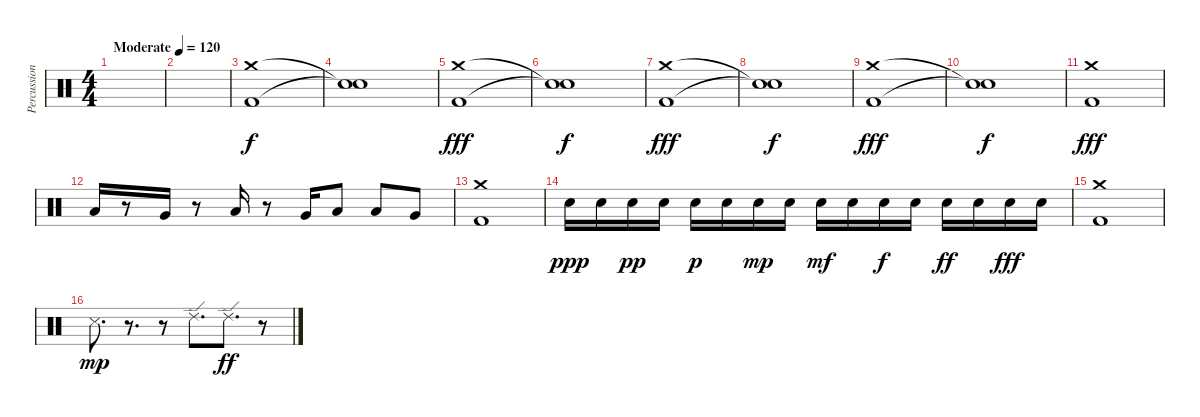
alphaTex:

\track ("Percussion" "Percussion") {instrument percussion}
\staff {score}
\articulation defaults
\ts (4 4)
\tempo (120 "Moderate")
\clef neutral
\ks c
|
|
("Crash medium (hit)" "Kick (hit) 2").1 |
("Snare (hit)"{t} "Snare (hit)"{t}).1{dy f} |
("Crash medium (hit)" "Kick (hit) 2").1{dy fff} |
("Snare (hit)"{t} "Snare (hit)"{t}).1{dy f} |
("Crash medium (hit)" "Kick (hit) 2").1{dy fff} |
("Snare (hit)"{t} "Snare (hit)"{t}).1{dy f} |
("Crash medium (hit)" "Kick (hit) 2").1{dy fff} |
("Snare (hit)"{t} "Snare (hit)"{t}).1{dy f} |
("Crash medium (hit)" "Kick (hit) 2").1{dy fff} |
"Low Tom (hit)".16 r.8 "Very Low Tom (hit)".16 r.8 "Low Tom (hit)".16 r.8 "Very Low Tom (hit)".16 "Low Tom (hit)".8 "Low Tom (hit)".8 "Very Low Tom (hit)".8 |
("Crash medium (hit)" "Kick (hit) 2").1 |
"Snare (hit) 2".16{dy ppp} "Snare (hit) 2".16 "Snare (hit) 2".16{dy pp} "Snare (hit) 2".16 "Snare (hit) 2".16{dy p} "Snare (hit) 2".16 "Snare (hit) 2".16{dy mp} "Snare (hit) 2".16 "Snare (hit) 2".16{dy mf} "Snare (hit) 2".16 "Snare (hit) 2".16{dy f} "Snare (hit) 2".16 "Snare (hit) 2".16{dy ff} "Snare (hit) 2".16 "Snare (hit) 2".16{dy fff} "Snare (hit) 2".16 |
("Crash medium (hit)" "Kick (hit) 2").1 |
"Snare (side stick) 3".8{d dy mp} r.8{d} r.8 "Ride (edge) 2".8{d} "Ride (edge) 2".8{d dy ff} r.8
